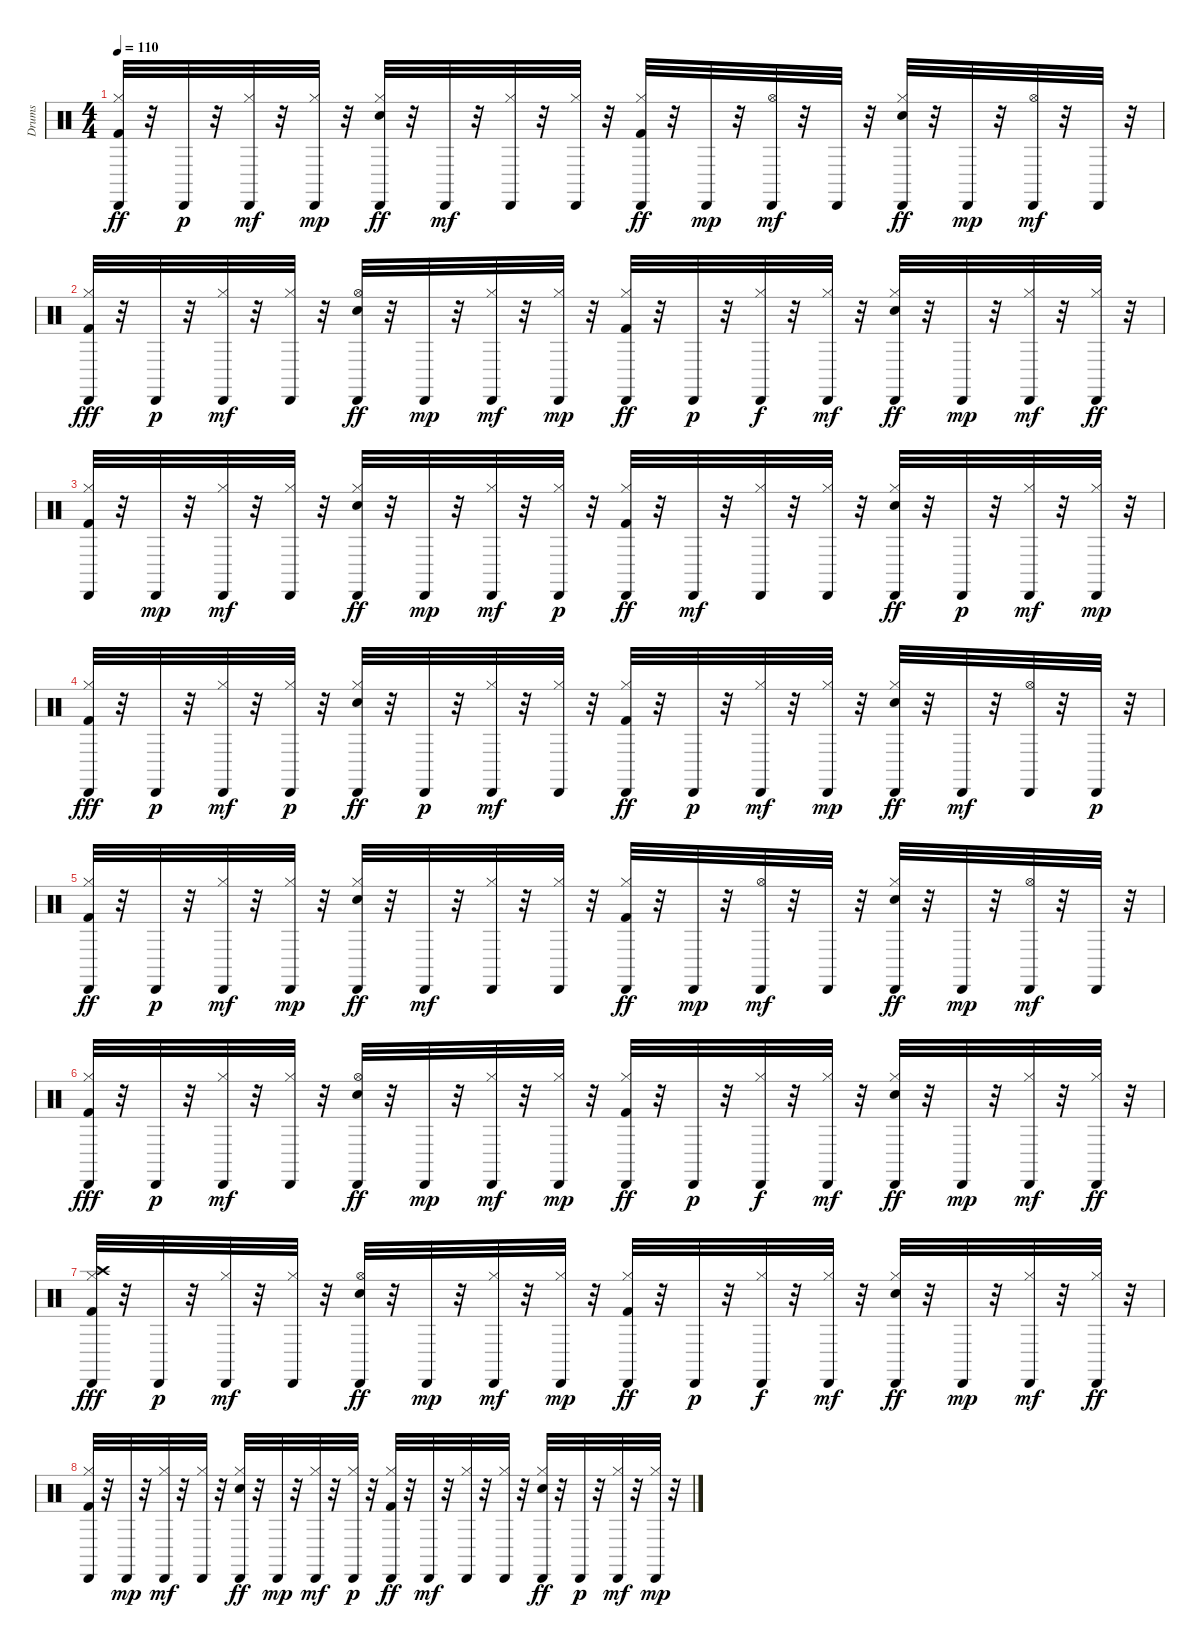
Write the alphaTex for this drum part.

\track ("Drums" "Drums") {instrument percussion}
\staff {score}
\articulation defaults
\ts (4 4)
\tempo 110
\clef neutral
\ks c
("Cabasa (hit)" "Hi-Hat (closed)" "Kick (hit) 2").32{dy ff} r.32 "Cabasa (hit)".32{dy p} r.32 ("Cabasa (hit)" "Hi-Hat (closed)").32{dy mf} r.32 ("Cabasa (hit)" "Hi-Hat (closed)").32{dy mp} r.32 ("Cabasa (hit)" "Hi-Hat (closed)" "Snare (hit) 2").32{dy ff} r.32 "Cabasa (hit)".32{dy mf} r.32 ("Cabasa (hit)" "Hi-Hat (closed)").32 r.32 ("Cabasa (hit)" "Hi-Hat (closed)").32 r.32 ("Cabasa (hit)" "Hi-Hat (closed)" "Kick (hit) 2").32{dy ff} r.32 "Cabasa (hit)".32{dy mp} r.32 ("Hi-Hat (open)" "Cabasa (hit)").32{dy mf} r.32 "Cabasa (hit)".32 r.32 ("Cabasa (hit)" "Hi-Hat (closed)" "Snare (hit) 2").32{dy ff} r.32 "Cabasa (hit)".32{dy mp} r.32 ("Hi-Hat (open)" "Cabasa (hit)").32{dy mf} r.32 "Cabasa (hit)".32 r.32 |
("Cabasa (hit)" "Hi-Hat (closed)" "Kick (hit) 2").32{dy fff} r.32 "Cabasa (hit)".32{dy p} r.32 ("Cabasa (hit)" "Hi-Hat (closed)").32{dy mf} r.32 ("Cabasa (hit)" "Hi-Hat (closed)").32 r.32 ("Hi-Hat (open)" "Cabasa (hit)" "Snare (hit) 2").32{dy ff} r.32 "Cabasa (hit)".32{dy mp} r.32 ("Cabasa (hit)" "Hi-Hat (closed)").32{dy mf} r.32 ("Cabasa (hit)" "Hi-Hat (closed)").32{dy mp} r.32 ("Cabasa (hit)" "Hi-Hat (closed)" "Kick (hit) 2").32{dy ff} r.32 "Cabasa (hit)".32{dy p} r.32 ("Cabasa (hit)" "Hi-Hat (closed)").32{dy f} r.32 ("Cabasa (hit)" "Hi-Hat (closed)").32{dy mf} r.32 ("Cabasa (hit)" "Hi-Hat (closed)" "Snare (hit) 2").32{dy ff} r.32 "Cabasa (hit)".32{dy mp} r.32 ("Cabasa (hit)" "Hi-Hat (closed)").32{dy mf} r.32 ("Cabasa (hit)" "Hi-Hat (closed)").32{dy ff} r.32 |
("Cabasa (hit)" "Hi-Hat (closed)" "Kick (hit) 2").32 r.32 "Cabasa (hit)".32{dy mp} r.32 ("Cabasa (hit)" "Hi-Hat (closed)").32{dy mf} r.32 ("Cabasa (hit)" "Hi-Hat (closed)").32 r.32 ("Cabasa (hit)" "Hi-Hat (closed)" "Snare (hit) 2").32{dy ff} r.32 "Cabasa (hit)".32{dy mp} r.32 ("Cabasa (hit)" "Hi-Hat (closed)").32{dy mf} r.32 ("Cabasa (hit)" "Hi-Hat (closed)").32{dy p} r.32 ("Cabasa (hit)" "Hi-Hat (closed)" "Kick (hit) 2").32{dy ff} r.32 "Cabasa (hit)".32{dy mf} r.32 ("Cabasa (hit)" "Hi-Hat (closed)").32 r.32 ("Cabasa (hit)" "Hi-Hat (closed)").32 r.32 ("Cabasa (hit)" "Hi-Hat (closed)" "Snare (hit) 2").32{dy ff} r.32 "Cabasa (hit)".32{dy p} r.32 ("Cabasa (hit)" "Hi-Hat (closed)").32{dy mf} r.32 ("Cabasa (hit)" "Hi-Hat (closed)").32{dy mp} r.32 |
("Cabasa (hit)" "Hi-Hat (closed)" "Kick (hit) 2").32{dy fff} r.32 "Cabasa (hit)".32{dy p} r.32 ("Cabasa (hit)" "Hi-Hat (closed)").32{dy mf} r.32 ("Cabasa (hit)" "Hi-Hat (closed)").32{dy p} r.32 ("Cabasa (hit)" "Hi-Hat (closed)" "Snare (hit) 2").32{dy ff} r.32 "Cabasa (hit)".32{dy p} r.32 ("Cabasa (hit)" "Hi-Hat (closed)").32{dy mf} r.32 ("Cabasa (hit)" "Hi-Hat (closed)").32 r.32 ("Cabasa (hit)" "Hi-Hat (closed)" "Kick (hit) 2").32{dy ff} r.32 "Cabasa (hit)".32{dy p} r.32 ("Cabasa (hit)" "Hi-Hat (closed)").32{dy mf} r.32 ("Cabasa (hit)" "Hi-Hat (closed)").32{dy mp} r.32 ("Cabasa (hit)" "Hi-Hat (closed)" "Snare (hit) 2").32{dy ff} r.32 "Cabasa (hit)".32{dy mf} r.32 ("Hi-Hat (open)" "Cabasa (hit)").32 r.32 "Cabasa (hit)".32{dy p} r.32 |
("Cabasa (hit)" "Hi-Hat (closed)" "Kick (hit) 2").32{dy ff} r.32 "Cabasa (hit)".32{dy p} r.32 ("Cabasa (hit)" "Hi-Hat (closed)").32{dy mf} r.32 ("Cabasa (hit)" "Hi-Hat (closed)").32{dy mp} r.32 ("Cabasa (hit)" "Hi-Hat (closed)" "Snare (hit) 2").32{dy ff} r.32 "Cabasa (hit)".32{dy mf} r.32 ("Cabasa (hit)" "Hi-Hat (closed)").32 r.32 ("Cabasa (hit)" "Hi-Hat (closed)").32 r.32 ("Cabasa (hit)" "Hi-Hat (closed)" "Kick (hit) 2").32{dy ff} r.32 "Cabasa (hit)".32{dy mp} r.32 ("Hi-Hat (open)" "Cabasa (hit)").32{dy mf} r.32 "Cabasa (hit)".32 r.32 ("Cabasa (hit)" "Hi-Hat (closed)" "Snare (hit) 2").32{dy ff} r.32 "Cabasa (hit)".32{dy mp} r.32 ("Hi-Hat (open)" "Cabasa (hit)").32{dy mf} r.32 "Cabasa (hit)".32 r.32 |
("Cabasa (hit)" "Hi-Hat (closed)" "Kick (hit) 2").32{dy fff} r.32 "Cabasa (hit)".32{dy p} r.32 ("Cabasa (hit)" "Hi-Hat (closed)").32{dy mf} r.32 ("Cabasa (hit)" "Hi-Hat (closed)").32 r.32 ("Hi-Hat (open)" "Cabasa (hit)" "Snare (hit) 2").32{dy ff} r.32 "Cabasa (hit)".32{dy mp} r.32 ("Cabasa (hit)" "Hi-Hat (closed)").32{dy mf} r.32 ("Cabasa (hit)" "Hi-Hat (closed)").32{dy mp} r.32 ("Cabasa (hit)" "Hi-Hat (closed)" "Kick (hit) 2").32{dy ff} r.32 "Cabasa (hit)".32{dy p} r.32 ("Cabasa (hit)" "Hi-Hat (closed)").32{dy f} r.32 ("Cabasa (hit)" "Hi-Hat (closed)").32{dy mf} r.32 ("Cabasa (hit)" "Hi-Hat (closed)" "Snare (hit) 2").32{dy ff} r.32 "Cabasa (hit)".32{dy mp} r.32 ("Cabasa (hit)" "Hi-Hat (closed)").32{dy mf} r.32 ("Cabasa (hit)" "Hi-Hat (closed)").32{dy ff} r.32 |
("Cabasa (hit)" "Crash high (hit)" "Hi-Hat (closed)" "Kick (hit) 2").32{dy fff} r.32 "Cabasa (hit)".32{dy p} r.32 ("Cabasa (hit)" "Hi-Hat (closed)").32{dy mf} r.32 ("Cabasa (hit)" "Hi-Hat (closed)").32 r.32 ("Hi-Hat (open)" "Cabasa (hit)" "Snare (hit) 2").32{dy ff} r.32 "Cabasa (hit)".32{dy mp} r.32 ("Cabasa (hit)" "Hi-Hat (closed)").32{dy mf} r.32 ("Cabasa (hit)" "Hi-Hat (closed)").32{dy mp} r.32 ("Cabasa (hit)" "Hi-Hat (closed)" "Kick (hit) 2").32{dy ff} r.32 "Cabasa (hit)".32{dy p} r.32 ("Cabasa (hit)" "Hi-Hat (closed)").32{dy f} r.32 ("Cabasa (hit)" "Hi-Hat (closed)").32{dy mf} r.32 ("Cabasa (hit)" "Hi-Hat (closed)" "Snare (hit) 2").32{dy ff} r.32 "Cabasa (hit)".32{dy mp} r.32 ("Cabasa (hit)" "Hi-Hat (closed)").32{dy mf} r.32 ("Cabasa (hit)" "Hi-Hat (closed)").32{dy ff} r.32 |
("Cabasa (hit)" "Hi-Hat (closed)" "Kick (hit) 2").32 r.32 "Cabasa (hit)".32{dy mp} r.32 ("Cabasa (hit)" "Hi-Hat (closed)").32{dy mf} r.32 ("Cabasa (hit)" "Hi-Hat (closed)").32 r.32 ("Cabasa (hit)" "Hi-Hat (closed)" "Snare (hit) 2").32{dy ff} r.32 "Cabasa (hit)".32{dy mp} r.32 ("Cabasa (hit)" "Hi-Hat (closed)").32{dy mf} r.32 ("Cabasa (hit)" "Hi-Hat (closed)").32{dy p} r.32 ("Cabasa (hit)" "Hi-Hat (closed)" "Kick (hit) 2").32{dy ff} r.32 "Cabasa (hit)".32{dy mf} r.32 ("Cabasa (hit)" "Hi-Hat (closed)").32 r.32 ("Cabasa (hit)" "Hi-Hat (closed)").32 r.32 ("Cabasa (hit)" "Hi-Hat (closed)" "Snare (hit) 2").32{dy ff} r.32 "Cabasa (hit)".32{dy p} r.32 ("Cabasa (hit)" "Hi-Hat (closed)").32{dy mf} r.32 ("Cabasa (hit)" "Hi-Hat (closed)").32{dy mp} r.32
